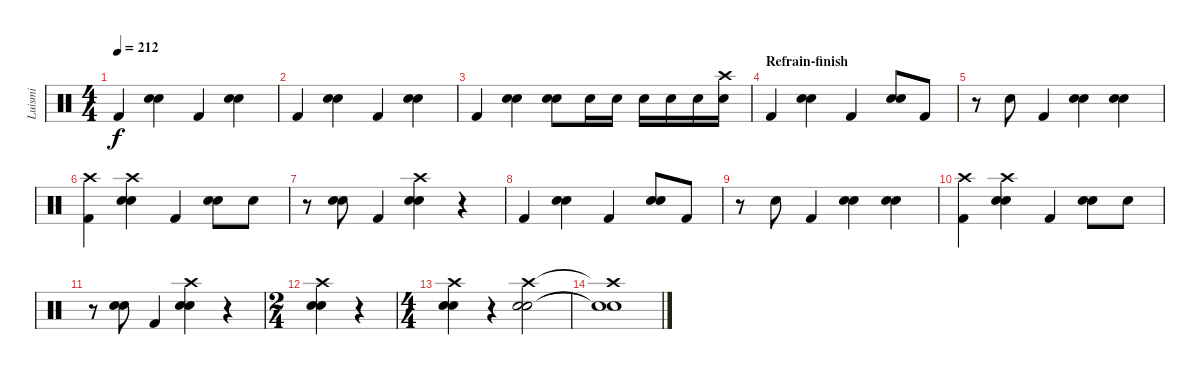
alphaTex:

\track ("Luismi" "Luismi") {instrument percussion}
\staff {score}
\articulation defaults
\ts (4 4)
\tempo 212
\clef neutral
\ks c "Kick (hit) 2".4{dy f}
("Electric Snare (hit)" "Snare (hit) 2").4 "Kick (hit) 2".4 ("Electric Snare (hit)" "Snare (hit) 2").4 |
"Kick (hit) 2".4 ("Snare (hit) 2" "Electric Snare (hit)").4 "Kick (hit) 2".4 ("Electric Snare (hit)" "Snare (hit) 2").4 |
"Kick (hit) 2".4 ("Snare (hit) 2" "Electric Snare (hit)").4 ("Snare (hit) 2" "Electric Snare (hit)").8 "Electric Snare (hit)".16 "Electric Snare (hit)".16 "Electric Snare (hit)".16 "Electric Snare (hit)".16 "Electric Snare (hit)".16 ("Crash high (hit)" "Electric Snare (hit)").16 |
\section ("" "Refrain-finish")
"Kick (hit) 2".4 ("Electric Snare (hit)" "Snare (hit) 2").4 "Kick (hit) 2".4 ("Electric Snare (hit)" "Snare (hit) 2").8 "Kick (hit) 2".8 |
r.8 "Electric Snare (hit)".8 "Kick (hit) 2".4 ("Electric Snare (hit)" "Snare (hit) 2").4 ("Electric Snare (hit)" "Snare (hit) 2").4 |
("Crash high (hit)" "Kick (hit) 2").4 ("Crash high (hit)" "Electric Snare (hit)" "Snare (hit) 2").4 "Kick (hit) 2".4 ("Electric Snare (hit)" "Snare (hit) 2").8 "Snare (hit) 2".8 |
r.8 ("Electric Snare (hit)" "Snare (hit) 2").8 "Kick (hit) 2".4 ("Crash high (hit)" "Electric Snare (hit)" "Snare (hit) 2").4 r.4 |
"Kick (hit) 2".4 ("Electric Snare (hit)" "Snare (hit) 2").4 "Kick (hit) 2".4 ("Electric Snare (hit)" "Snare (hit) 2").8 "Kick (hit) 2".8 |
r.8 "Electric Snare (hit)".8 "Kick (hit) 2".4 ("Electric Snare (hit)" "Snare (hit) 2").4 ("Electric Snare (hit)" "Snare (hit) 2").4 |
("Crash high (hit)" "Kick (hit) 2").4 ("Crash high (hit)" "Electric Snare (hit)" "Snare (hit) 2").4 "Kick (hit) 2".4 ("Electric Snare (hit)" "Snare (hit) 2").8 "Snare (hit) 2".8 |
r.8 ("Electric Snare (hit)" "Snare (hit) 2").8 "Kick (hit) 2".4 ("Crash high (hit)" "Electric Snare (hit)" "Snare (hit) 2").4 r.4 |
\ts (2 4)
("Crash high (hit)" "Electric Snare (hit)" "Snare (hit) 2").4 r.4 |
\ts (4 4)
("Crash high (hit)" "Electric Snare (hit)" "Snare (hit) 2").4 r.4 ("Crash high (hit)" "Electric Snare (hit)" "Snare (hit) 2").2 |
("Crash high (hit)"{t} "Electric Snare (hit)"{t} "Snare (hit) 2"{t}).1
